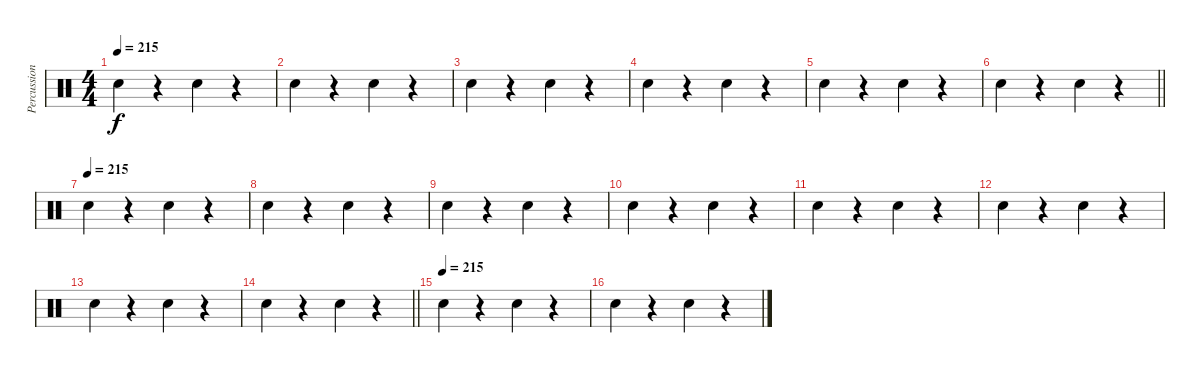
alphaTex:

\track ("Percussion" "Percussion") {instrument percussion}
\staff {score}
\articulation defaults
\ts (4 4)
\tempo 215
\clef neutral
\ks c "Snare (hit) 2".4{dy f}
r.4 "Snare (hit) 2".4 r.4 |
"Snare (hit) 2".4 r.4 "Snare (hit) 2".4 r.4 |
"Snare (hit) 2".4 r.4 "Snare (hit) 2".4 r.4 |
"Snare (hit) 2".4 r.4 "Snare (hit) 2".4 r.4 |
"Snare (hit) 2".4 r.4 "Snare (hit) 2".4 r.4 |
\barLineRight lightlight "Snare (hit) 2".4
r.4 "Snare (hit) 2".4 r.4 |
\tempo (215)
"Snare (hit) 2".4 r.4 "Snare (hit) 2".4 r.4 |
"Snare (hit) 2".4 r.4 "Snare (hit) 2".4 r.4 |
"Snare (hit) 2".4 r.4 "Snare (hit) 2".4 r.4 |
"Snare (hit) 2".4 r.4 "Snare (hit) 2".4 r.4 |
"Snare (hit) 2".4 r.4 "Snare (hit) 2".4 r.4 |
"Snare (hit) 2".4 r.4 "Snare (hit) 2".4 r.4 |
"Snare (hit) 2".4 r.4 "Snare (hit) 2".4 r.4 |
\barLineRight lightlight "Snare (hit) 2".4
r.4 "Snare (hit) 2".4 r.4 |
\tempo (215)
"Snare (hit) 2".4 r.4 "Snare (hit) 2".4 r.4 |
"Snare (hit) 2".4 r.4 "Snare (hit) 2".4 r.4
